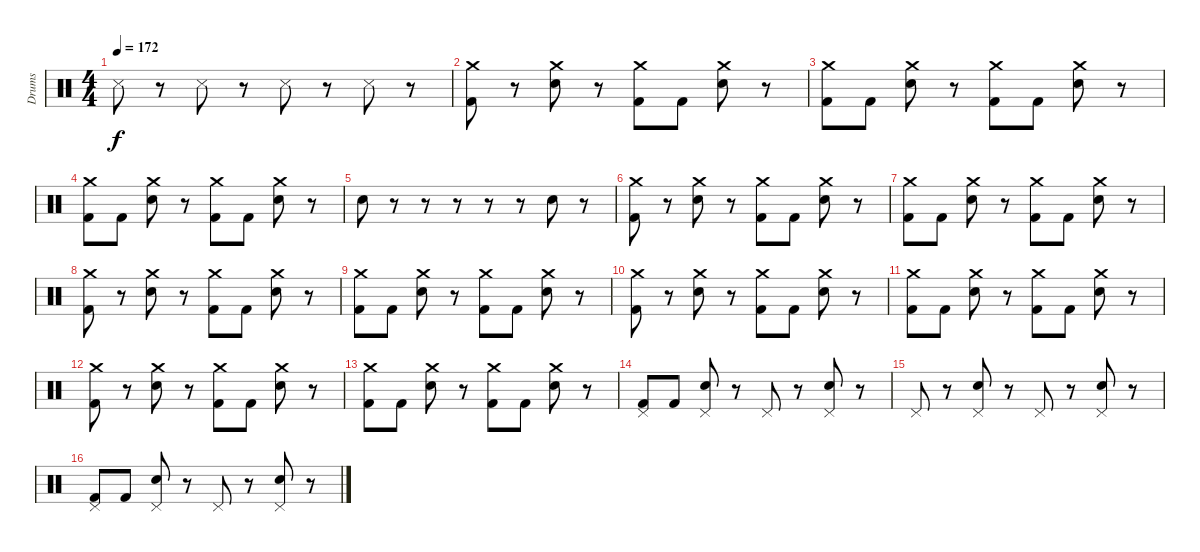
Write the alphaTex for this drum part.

\track ("Drums" "Drums") {instrument percussion}
\staff {score}
\articulation defaults
\ts (4 4)
\tempo 172
\clef neutral
\ks c "Snare (side stick) 3".8{dy f}
r.8 "Snare (side stick) 3".8 r.8 "Snare (side stick) 3".8 r.8 "Snare (side stick) 3".8 r.8 |
("Crash medium (hit)" "Kick (hit) 2").8 r.8 ("Crash medium (hit)" "Electric Snare (hit)").8 r.8 ("Crash medium (hit)" "Kick (hit) 2").8 "Kick (hit) 2".8 ("Crash medium (hit)" "Electric Snare (hit)").8 r.8 |
("Crash medium (hit)" "Kick (hit) 2").8 "Kick (hit) 2".8 ("Crash medium (hit)" "Electric Snare (hit)").8 r.8 ("Crash medium (hit)" "Kick (hit) 2").8 "Kick (hit) 2".8 ("Crash medium (hit)" "Electric Snare (hit)").8 r.8 |
("Crash medium (hit)" "Kick (hit) 2").8 "Kick (hit) 2".8 ("Crash medium (hit)" "Electric Snare (hit)").8 r.8 ("Crash medium (hit)" "Kick (hit) 2").8 "Kick (hit) 2".8 ("Crash medium (hit)" "Electric Snare (hit)").8 r.8 |
"Electric Snare (hit)".8 r.8 r.8 r.8 r.8 r.8 "Electric Snare (hit)".8 r.8 |
("Crash medium (hit)" "Kick (hit) 2").8 r.8 ("Crash medium (hit)" "Electric Snare (hit)").8 r.8 ("Crash medium (hit)" "Kick (hit) 2").8 "Kick (hit) 2".8 ("Crash medium (hit)" "Electric Snare (hit)").8 r.8 |
("Crash medium (hit)" "Kick (hit) 2").8 "Kick (hit) 2".8 ("Crash medium (hit)" "Electric Snare (hit)").8 r.8 ("Crash medium (hit)" "Kick (hit) 2").8 "Kick (hit) 2".8 ("Crash medium (hit)" "Electric Snare (hit)").8 r.8 |
("Crash medium (hit)" "Kick (hit) 2").8 r.8 ("Crash medium (hit)" "Electric Snare (hit)").8 r.8 ("Crash medium (hit)" "Kick (hit) 2").8 "Kick (hit) 2".8 ("Crash medium (hit)" "Electric Snare (hit)").8 r.8 |
("Crash medium (hit)" "Kick (hit) 2").8 "Kick (hit) 2".8 ("Crash medium (hit)" "Electric Snare (hit)").8 r.8 ("Crash medium (hit)" "Kick (hit) 2").8 "Kick (hit) 2".8 ("Crash medium (hit)" "Electric Snare (hit)").8 r.8 |
("Crash medium (hit)" "Kick (hit) 2").8 r.8 ("Crash medium (hit)" "Electric Snare (hit)").8 r.8 ("Crash medium (hit)" "Kick (hit) 2").8 "Kick (hit) 2".8 ("Crash medium (hit)" "Electric Snare (hit)").8 r.8 |
("Crash medium (hit)" "Kick (hit) 2").8 "Kick (hit) 2".8 ("Crash medium (hit)" "Electric Snare (hit)").8 r.8 ("Crash medium (hit)" "Kick (hit) 2").8 "Kick (hit) 2".8 ("Crash medium (hit)" "Electric Snare (hit)").8 r.8 |
("Crash medium (hit)" "Kick (hit) 2").8 r.8 ("Crash medium (hit)" "Electric Snare (hit)").8 r.8 ("Crash medium (hit)" "Kick (hit) 2").8 "Kick (hit) 2".8 ("Crash medium (hit)" "Electric Snare (hit)").8 r.8 |
("Crash medium (hit)" "Kick (hit) 2").8 "Kick (hit) 2".8 ("Crash medium (hit)" "Electric Snare (hit)").8 r.8 ("Crash medium (hit)" "Kick (hit) 2").8 "Kick (hit) 2".8 ("Crash medium (hit)" "Electric Snare (hit)").8 r.8 |
("Pedal Hi-Hat (hit)" "Kick (hit) 2").8 "Kick (hit) 2".8 ("Pedal Hi-Hat (hit)" "Electric Snare (hit)").8 r.8 "Pedal Hi-Hat (hit)".8 r.8 ("Pedal Hi-Hat (hit)" "Electric Snare (hit)").8 r.8 |
"Pedal Hi-Hat (hit)".8 r.8 ("Pedal Hi-Hat (hit)" "Electric Snare (hit)").8 r.8 "Pedal Hi-Hat (hit)".8 r.8 ("Pedal Hi-Hat (hit)" "Electric Snare (hit)").8 r.8 |
("Pedal Hi-Hat (hit)" "Kick (hit) 2").8 "Kick (hit) 2".8 ("Pedal Hi-Hat (hit)" "Electric Snare (hit)").8 r.8 "Pedal Hi-Hat (hit)".8 r.8 ("Pedal Hi-Hat (hit)" "Electric Snare (hit)").8 r.8
